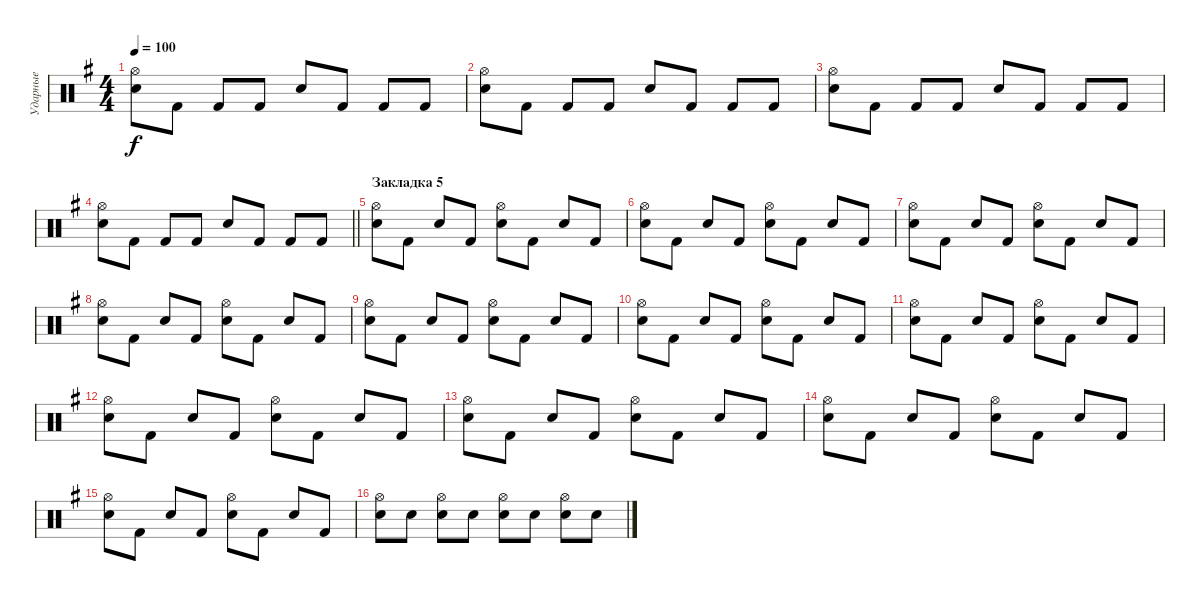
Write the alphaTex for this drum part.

\track ("Ударные" "Ударные") {instrument percussion}
\staff {score}
\articulation defaults
\ts (4 4)
\tempo 100
\clef neutral
\ks g
("Hi-Hat (open)" "Snare (hit) 2").8{dy f} "Kick (hit) 2".8 "Kick (hit) 2".8 "Kick (hit) 2".8 "Snare (hit) 2".8 "Kick (hit) 2".8 "Kick (hit) 2".8 "Kick (hit) 2".8 |
("Hi-Hat (open)" "Snare (hit) 2").8 "Kick (hit) 2".8 "Kick (hit) 2".8 "Kick (hit) 2".8 "Snare (hit) 2".8 "Kick (hit) 2".8 "Kick (hit) 2".8 "Kick (hit) 2".8 |
("Hi-Hat (open)" "Snare (hit) 2").8 "Kick (hit) 2".8 "Kick (hit) 2".8 "Kick (hit) 2".8 "Snare (hit) 2".8 "Kick (hit) 2".8 "Kick (hit) 2".8 "Kick (hit) 2".8 |
\barLineRight lightlight
("Hi-Hat (open)" "Snare (hit) 2").8 "Kick (hit) 2".8 "Kick (hit) 2".8 "Kick (hit) 2".8 "Snare (hit) 2".8 "Kick (hit) 2".8 "Kick (hit) 2".8 "Kick (hit) 2".8 |
\section ("" "Закладка 5")
("Hi-Hat (open)" "Snare (hit) 2").8 "Kick (hit) 2".8 "Electric Snare (hit)".8 "Kick (hit) 2".8 ("Hi-Hat (open)" "Snare (hit) 2").8 "Kick (hit) 2".8 "Electric Snare (hit)".8 "Kick (hit) 2".8 |
("Hi-Hat (open)" "Snare (hit) 2").8 "Kick (hit) 2".8 "Electric Snare (hit)".8 "Kick (hit) 2".8 ("Hi-Hat (open)" "Snare (hit) 2").8 "Kick (hit) 2".8 "Electric Snare (hit)".8 "Kick (hit) 2".8 |
("Hi-Hat (open)" "Snare (hit) 2").8 "Kick (hit) 2".8 "Electric Snare (hit)".8 "Kick (hit) 2".8 ("Hi-Hat (open)" "Snare (hit) 2").8 "Kick (hit) 2".8 "Electric Snare (hit)".8 "Kick (hit) 2".8 |
("Hi-Hat (open)" "Snare (hit) 2").8 "Kick (hit) 2".8 "Electric Snare (hit)".8 "Kick (hit) 2".8 ("Hi-Hat (open)" "Snare (hit) 2").8 "Kick (hit) 2".8 "Electric Snare (hit)".8 "Kick (hit) 2".8 |
("Hi-Hat (open)" "Snare (hit) 2").8 "Kick (hit) 2".8 "Electric Snare (hit)".8 "Kick (hit) 2".8 ("Hi-Hat (open)" "Snare (hit) 2").8 "Kick (hit) 2".8 "Electric Snare (hit)".8 "Kick (hit) 2".8 |
("Hi-Hat (open)" "Snare (hit) 2").8 "Kick (hit) 2".8 "Electric Snare (hit)".8 "Kick (hit) 2".8 ("Hi-Hat (open)" "Snare (hit) 2").8 "Kick (hit) 2".8 "Electric Snare (hit)".8 "Kick (hit) 2".8 |
("Hi-Hat (open)" "Snare (hit) 2").8 "Kick (hit) 2".8 "Electric Snare (hit)".8 "Kick (hit) 2".8 ("Hi-Hat (open)" "Snare (hit) 2").8 "Kick (hit) 2".8 "Electric Snare (hit)".8 "Kick (hit) 2".8 |
("Hi-Hat (open)" "Snare (hit) 2").8 "Kick (hit) 2".8 "Electric Snare (hit)".8 "Kick (hit) 2".8 ("Hi-Hat (open)" "Snare (hit) 2").8 "Kick (hit) 2".8 "Electric Snare (hit)".8 "Kick (hit) 2".8 |
("Hi-Hat (open)" "Snare (hit) 2").8 "Kick (hit) 2".8 "Electric Snare (hit)".8 "Kick (hit) 2".8 ("Hi-Hat (open)" "Snare (hit) 2").8 "Kick (hit) 2".8 "Electric Snare (hit)".8 "Kick (hit) 2".8 |
("Hi-Hat (open)" "Snare (hit) 2").8 "Kick (hit) 2".8 "Electric Snare (hit)".8 "Kick (hit) 2".8 ("Hi-Hat (open)" "Snare (hit) 2").8 "Kick (hit) 2".8 "Electric Snare (hit)".8 "Kick (hit) 2".8 |
("Hi-Hat (open)" "Snare (hit) 2").8 "Kick (hit) 2".8 "Electric Snare (hit)".8 "Kick (hit) 2".8 ("Hi-Hat (open)" "Snare (hit) 2").8 "Kick (hit) 2".8 "Electric Snare (hit)".8 "Kick (hit) 2".8 |
("Hi-Hat (open)" "Snare (hit) 2").8 "Electric Snare (hit)".8 ("Hi-Hat (open)" "Snare (hit) 2").8 "Electric Snare (hit)".8 ("Hi-Hat (open)" "Snare (hit) 2").8 "Electric Snare (hit)".8 ("Hi-Hat (open)" "Snare (hit) 2").8 "Electric Snare (hit)".8
